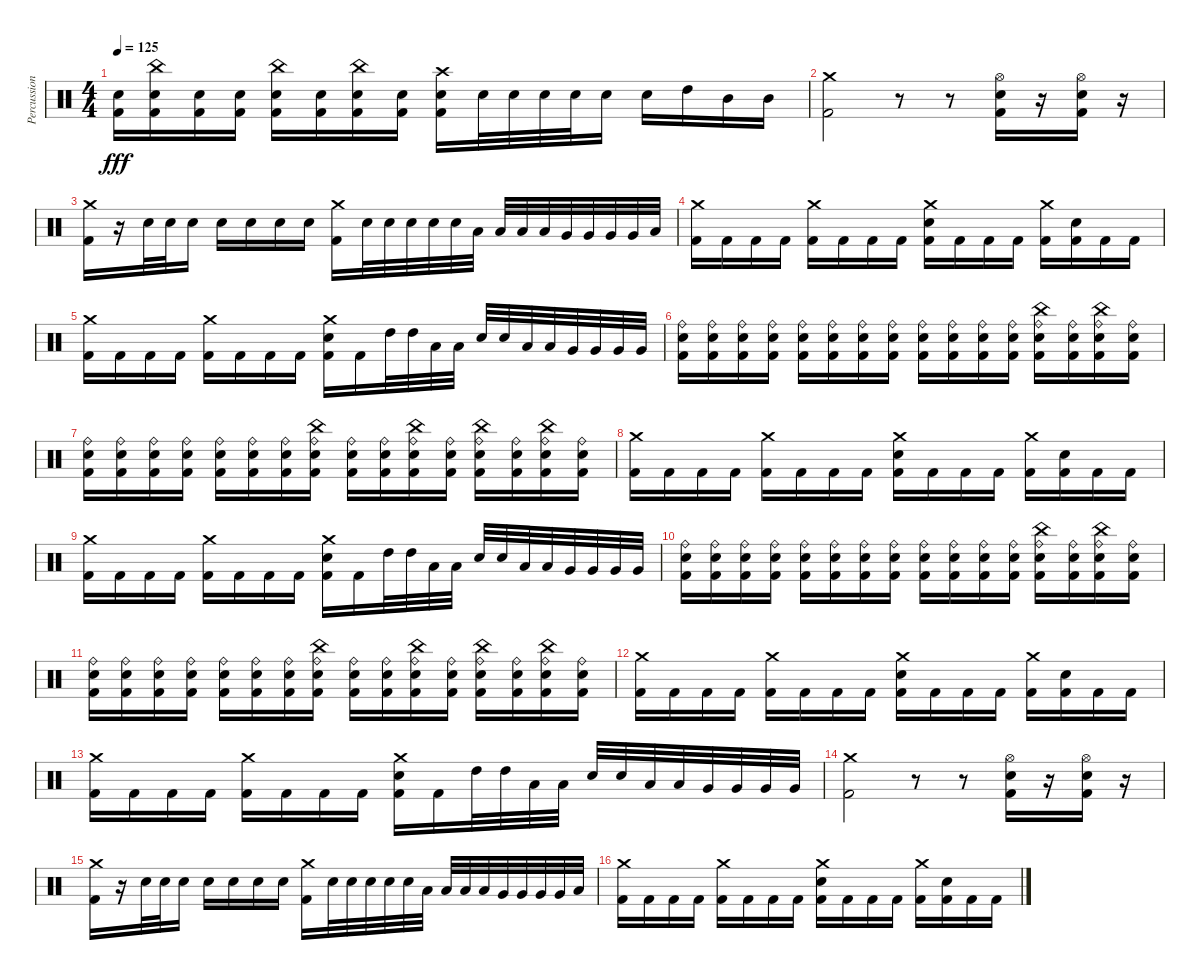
\track ("Percussion" "Percussion") {instrument percussion}
\staff {score}
\articulation defaults
\ts (4 4)
\tempo 125
\clef neutral
\ks c
("Electric Snare (hit)" "Kick (hit) 2").16{dy fff} ("China (hit)" "Electric Snare (hit)" "Kick (hit) 2").16 ("Electric Snare (hit)" "Kick (hit) 2").16 ("Electric Snare (hit)" "Kick (hit) 2").16 ("China (hit)" "Electric Snare (hit)" "Kick (hit) 2").16 ("Electric Snare (hit)" "Kick (hit) 2").16 ("China (hit)" "Electric Snare (hit)" "Kick (hit) 2").16 ("Electric Snare (hit)" "Kick (hit) 2").16 ("Crash high (hit)" "Electric Snare (hit)" "Kick (hit) 2").16 "Electric Snare (hit)".32 "Electric Snare (hit)".32 "Electric Snare (hit)".32 "Electric Snare (hit)".32 "Electric Snare (hit)".16 "Electric Snare (hit)".16 "High Tom (hit)".16 "Mid Tom (hit)".16 "Mid Tom (hit)".16 |
("Crash medium (hit)" "Kick (hit) 2").2 r.8 r.8 ("Hi-Hat (open)" "Electric Snare (hit)" "Kick (hit) 2").16 r.16 ("Hi-Hat (open)" "Electric Snare (hit)" "Kick (hit) 2").16 r.16 |
("Crash medium (hit)" "Kick (hit) 2").16 r.16 "Electric Snare (hit)".32 "Electric Snare (hit)".32 "Electric Snare (hit)".16 "Electric Snare (hit)".16 "Electric Snare (hit)".16 "Electric Snare (hit)".16 "Electric Snare (hit)".16 ("Crash medium (hit)" "Kick (hit) 2").16 "Electric Snare (hit)".32 "Electric Snare (hit)".32 "Electric Snare (hit)".32 "Electric Snare (hit)".32 "Electric Snare (hit)".32 "Low Tom (hit)".32 "Low Tom (hit)".32 "Low Tom (hit)".32 "Low Tom (hit)".32 "Very Low Tom (hit)".32 "Very Low Tom (hit)".32 "Very Low Tom (hit)".32 "Very Low Tom (hit)".32 "Low Tom (hit)".32 |
("Crash medium (hit)" "Kick (hit) 2").16 "Kick (hit) 2".16 "Kick (hit) 2".16 "Kick (hit) 2".16 ("Crash medium (hit)" "Kick (hit) 2").16 "Kick (hit) 2".16 "Kick (hit) 2".16 "Kick (hit) 2".16 ("Crash medium (hit)" "Electric Snare (hit)" "Kick (hit) 2").16 "Kick (hit) 2".16 "Kick (hit) 2".16 "Kick (hit) 2".16 ("Crash medium (hit)" "Kick (hit) 2").16 ("Electric Snare (hit)" "Kick (hit) 2").16 "Kick (hit) 2".16 "Kick (hit) 2".16 |
("Crash medium (hit)" "Kick (hit) 2").16 "Kick (hit) 2".16 "Kick (hit) 2".16 "Kick (hit) 2".16 ("Crash medium (hit)" "Kick (hit) 2").16 "Kick (hit) 2".16 "Kick (hit) 2".16 "Kick (hit) 2".16 ("Crash medium (hit)" "Electric Snare (hit)" "Kick (hit) 2").16 "Kick (hit) 2".16 "High Tom (hit)".32 "High Tom (hit)".32 "Low Tom (hit)".32 "Low Tom (hit)".32 "Electric Snare (hit)".32 "Electric Snare (hit)".32 "Low Tom (hit)".32 "Low Tom (hit)".32 "Very Low Tom (hit)".32 "Very Low Tom (hit)".32 "Very Low Tom (hit)".32 "Very Low Tom (hit)".32 |
("Ride (bell)" "Electric Snare (hit)" "Kick (hit) 2").16 ("Ride (bell)" "Electric Snare (hit)" "Kick (hit) 2").16 ("Ride (bell)" "Electric Snare (hit)" "Kick (hit) 2").16 ("Ride (bell)" "Electric Snare (hit)" "Kick (hit) 2").16 ("Ride (bell)" "Electric Snare (hit)" "Kick (hit) 2").16 ("Ride (bell)" "Electric Snare (hit)" "Kick (hit) 2").16 ("Ride (bell)" "Electric Snare (hit)" "Kick (hit) 2").16 ("Ride (bell)" "Electric Snare (hit)" "Kick (hit) 2").16 ("Ride (bell)" "Electric Snare (hit)" "Kick (hit) 2").16 ("Ride (bell)" "Electric Snare (hit)" "Kick (hit) 2").16 ("Ride (bell)" "Electric Snare (hit)" "Kick (hit) 2").16 ("Ride (bell)" "Electric Snare (hit)" "Kick (hit) 2").16 ("China (hit)" "Ride (bell)" "Electric Snare (hit)" "Kick (hit) 2").16 ("Ride (bell)" "Electric Snare (hit)" "Kick (hit) 2").16 ("China (hit)" "Ride (bell)" "Electric Snare (hit)" "Kick (hit) 2").16 ("Ride (bell)" "Electric Snare (hit)" "Kick (hit) 2").16 |
("Ride (bell)" "Electric Snare (hit)" "Kick (hit) 2").16 ("Ride (bell)" "Electric Snare (hit)" "Kick (hit) 2").16 ("Ride (bell)" "Electric Snare (hit)" "Kick (hit) 2").16 ("Ride (bell)" "Electric Snare (hit)" "Kick (hit) 2").16 ("Ride (bell)" "Electric Snare (hit)" "Kick (hit) 2").16 ("Ride (bell)" "Electric Snare (hit)" "Kick (hit) 2").16 ("Ride (bell)" "Electric Snare (hit)" "Kick (hit) 2").16 ("China (hit)" "Ride (bell)" "Electric Snare (hit)" "Kick (hit) 2").16 ("Ride (bell)" "Electric Snare (hit)" "Kick (hit) 2").16 ("Ride (bell)" "Electric Snare (hit)" "Kick (hit) 2").16 ("China (hit)" "Ride (bell)" "Electric Snare (hit)" "Kick (hit) 2").16 ("Ride (bell)" "Electric Snare (hit)" "Kick (hit) 2").16 ("China (hit)" "Ride (bell)" "Electric Snare (hit)" "Kick (hit) 2").16 ("Ride (bell)" "Electric Snare (hit)" "Kick (hit) 2").16 ("China (hit)" "Ride (bell)" "Electric Snare (hit)" "Kick (hit) 2").16 ("Ride (bell)" "Electric Snare (hit)" "Kick (hit) 2").16 |
("Crash medium (hit)" "Kick (hit) 2").16 "Kick (hit) 2".16 "Kick (hit) 2".16 "Kick (hit) 2".16 ("Crash medium (hit)" "Kick (hit) 2").16 "Kick (hit) 2".16 "Kick (hit) 2".16 "Kick (hit) 2".16 ("Crash medium (hit)" "Electric Snare (hit)" "Kick (hit) 2").16 "Kick (hit) 2".16 "Kick (hit) 2".16 "Kick (hit) 2".16 ("Crash medium (hit)" "Kick (hit) 2").16 ("Electric Snare (hit)" "Kick (hit) 2").16 "Kick (hit) 2".16 "Kick (hit) 2".16 |
("Crash medium (hit)" "Kick (hit) 2").16 "Kick (hit) 2".16 "Kick (hit) 2".16 "Kick (hit) 2".16 ("Crash medium (hit)" "Kick (hit) 2").16 "Kick (hit) 2".16 "Kick (hit) 2".16 "Kick (hit) 2".16 ("Crash medium (hit)" "Electric Snare (hit)" "Kick (hit) 2").16 "Kick (hit) 2".16 "High Tom (hit)".32 "High Tom (hit)".32 "Low Tom (hit)".32 "Low Tom (hit)".32 "Electric Snare (hit)".32 "Electric Snare (hit)".32 "Low Tom (hit)".32 "Low Tom (hit)".32 "Very Low Tom (hit)".32 "Very Low Tom (hit)".32 "Very Low Tom (hit)".32 "Very Low Tom (hit)".32 |
("Ride (bell)" "Electric Snare (hit)" "Kick (hit) 2").16 ("Ride (bell)" "Electric Snare (hit)" "Kick (hit) 2").16 ("Ride (bell)" "Electric Snare (hit)" "Kick (hit) 2").16 ("Ride (bell)" "Electric Snare (hit)" "Kick (hit) 2").16 ("Ride (bell)" "Electric Snare (hit)" "Kick (hit) 2").16 ("Ride (bell)" "Electric Snare (hit)" "Kick (hit) 2").16 ("Ride (bell)" "Electric Snare (hit)" "Kick (hit) 2").16 ("Ride (bell)" "Electric Snare (hit)" "Kick (hit) 2").16 ("Ride (bell)" "Electric Snare (hit)" "Kick (hit) 2").16 ("Ride (bell)" "Electric Snare (hit)" "Kick (hit) 2").16 ("Ride (bell)" "Electric Snare (hit)" "Kick (hit) 2").16 ("Ride (bell)" "Electric Snare (hit)" "Kick (hit) 2").16 ("China (hit)" "Ride (bell)" "Electric Snare (hit)" "Kick (hit) 2").16 ("Ride (bell)" "Electric Snare (hit)" "Kick (hit) 2").16 ("China (hit)" "Ride (bell)" "Electric Snare (hit)" "Kick (hit) 2").16 ("Ride (bell)" "Electric Snare (hit)" "Kick (hit) 2").16 |
("Ride (bell)" "Electric Snare (hit)" "Kick (hit) 2").16 ("Ride (bell)" "Electric Snare (hit)" "Kick (hit) 2").16 ("Ride (bell)" "Electric Snare (hit)" "Kick (hit) 2").16 ("Ride (bell)" "Electric Snare (hit)" "Kick (hit) 2").16 ("Ride (bell)" "Electric Snare (hit)" "Kick (hit) 2").16 ("Ride (bell)" "Electric Snare (hit)" "Kick (hit) 2").16 ("Ride (bell)" "Electric Snare (hit)" "Kick (hit) 2").16 ("China (hit)" "Ride (bell)" "Electric Snare (hit)" "Kick (hit) 2").16 ("Ride (bell)" "Electric Snare (hit)" "Kick (hit) 2").16 ("Ride (bell)" "Electric Snare (hit)" "Kick (hit) 2").16 ("China (hit)" "Ride (bell)" "Electric Snare (hit)" "Kick (hit) 2").16 ("Ride (bell)" "Electric Snare (hit)" "Kick (hit) 2").16 ("China (hit)" "Ride (bell)" "Electric Snare (hit)" "Kick (hit) 2").16 ("Ride (bell)" "Electric Snare (hit)" "Kick (hit) 2").16 ("China (hit)" "Ride (bell)" "Electric Snare (hit)" "Kick (hit) 2").16 ("Ride (bell)" "Electric Snare (hit)" "Kick (hit) 2").16 |
("Crash medium (hit)" "Kick (hit) 2").16 "Kick (hit) 2".16 "Kick (hit) 2".16 "Kick (hit) 2".16 ("Crash medium (hit)" "Kick (hit) 2").16 "Kick (hit) 2".16 "Kick (hit) 2".16 "Kick (hit) 2".16 ("Crash medium (hit)" "Electric Snare (hit)" "Kick (hit) 2").16 "Kick (hit) 2".16 "Kick (hit) 2".16 "Kick (hit) 2".16 ("Crash medium (hit)" "Kick (hit) 2").16 ("Electric Snare (hit)" "Kick (hit) 2").16 "Kick (hit) 2".16 "Kick (hit) 2".16 |
("Crash medium (hit)" "Kick (hit) 2").16 "Kick (hit) 2".16 "Kick (hit) 2".16 "Kick (hit) 2".16 ("Crash medium (hit)" "Kick (hit) 2").16 "Kick (hit) 2".16 "Kick (hit) 2".16 "Kick (hit) 2".16 ("Crash medium (hit)" "Electric Snare (hit)" "Kick (hit) 2").16 "Kick (hit) 2".16 "High Tom (hit)".32 "High Tom (hit)".32 "Low Tom (hit)".32 "Low Tom (hit)".32 "Electric Snare (hit)".32 "Electric Snare (hit)".32 "Low Tom (hit)".32 "Low Tom (hit)".32 "Very Low Tom (hit)".32 "Very Low Tom (hit)".32 "Very Low Tom (hit)".32 "Very Low Tom (hit)".32 |
("Crash medium (hit)" "Kick (hit) 2").2 r.8 r.8 ("Hi-Hat (open)" "Electric Snare (hit)" "Kick (hit) 2").16 r.16 ("Hi-Hat (open)" "Electric Snare (hit)" "Kick (hit) 2").16 r.16 |
("Crash medium (hit)" "Kick (hit) 2").16 r.16 "Electric Snare (hit)".32 "Electric Snare (hit)".32 "Electric Snare (hit)".16 "Electric Snare (hit)".16 "Electric Snare (hit)".16 "Electric Snare (hit)".16 "Electric Snare (hit)".16 ("Crash medium (hit)" "Kick (hit) 2").16 "Electric Snare (hit)".32 "Electric Snare (hit)".32 "Electric Snare (hit)".32 "Electric Snare (hit)".32 "Electric Snare (hit)".32 "Low Tom (hit)".32 "Low Tom (hit)".32 "Low Tom (hit)".32 "Low Tom (hit)".32 "Very Low Tom (hit)".32 "Very Low Tom (hit)".32 "Very Low Tom (hit)".32 "Very Low Tom (hit)".32 "Low Tom (hit)".32 |
("Crash medium (hit)" "Kick (hit) 2").16 "Kick (hit) 2".16 "Kick (hit) 2".16 "Kick (hit) 2".16 ("Crash medium (hit)" "Kick (hit) 2").16 "Kick (hit) 2".16 "Kick (hit) 2".16 "Kick (hit) 2".16 ("Crash medium (hit)" "Electric Snare (hit)" "Kick (hit) 2").16 "Kick (hit) 2".16 "Kick (hit) 2".16 "Kick (hit) 2".16 ("Crash medium (hit)" "Kick (hit) 2").16 ("Electric Snare (hit)" "Kick (hit) 2").16 "Kick (hit) 2".16 "Kick (hit) 2".16
